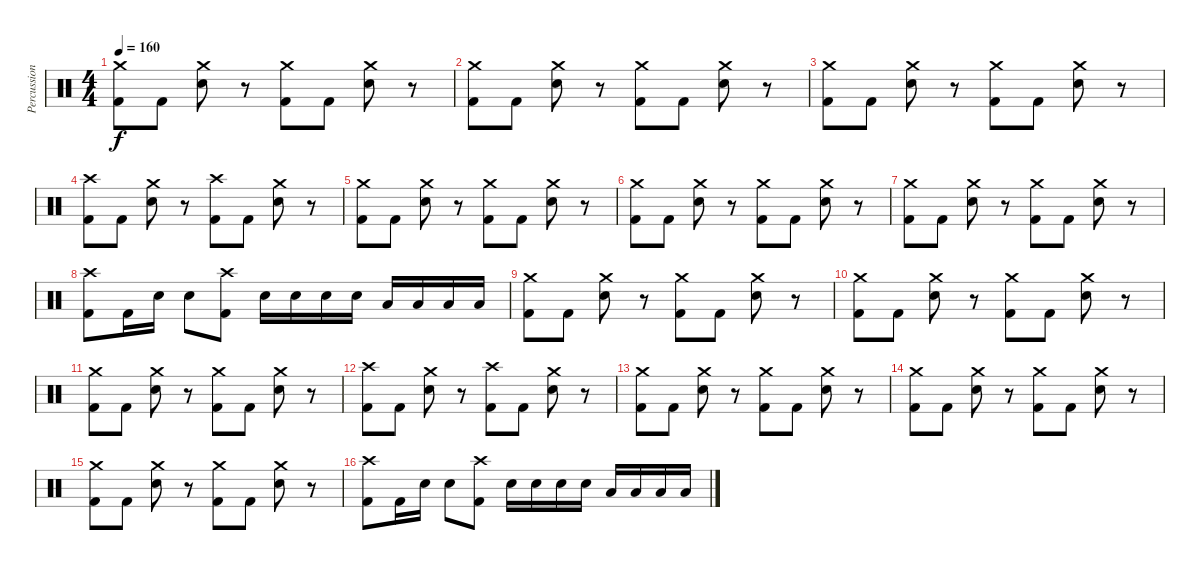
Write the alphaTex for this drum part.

\track ("Percussion" "Percussion") {instrument percussion}
\staff {score}
\articulation defaults
\ts (4 4)
\tempo 160
\clef neutral
\ks c
("Crash medium (hit)" "Kick (hit) 2").8{dy f} "Kick (hit) 2".8 ("Crash medium (hit)" "Electric Snare (hit)").8 r.8 ("Crash medium (hit)" "Kick (hit) 2").8 "Kick (hit) 2".8 ("Crash medium (hit)" "Electric Snare (hit)").8 r.8 |
("Crash medium (hit)" "Kick (hit) 2").8 "Kick (hit) 2".8 ("Crash medium (hit)" "Electric Snare (hit)").8 r.8 ("Crash medium (hit)" "Kick (hit) 2").8 "Kick (hit) 2".8 ("Crash medium (hit)" "Electric Snare (hit)").8 r.8 |
("Crash medium (hit)" "Kick (hit) 2").8 "Kick (hit) 2".8 ("Crash medium (hit)" "Electric Snare (hit)").8 r.8 ("Crash medium (hit)" "Kick (hit) 2").8 "Kick (hit) 2".8 ("Crash medium (hit)" "Electric Snare (hit)").8 r.8 |
("Crash high (hit)" "Kick (hit) 2").8 "Kick (hit) 2".8 ("Crash medium (hit)" "Electric Snare (hit)").8 r.8 ("Crash high (hit)" "Kick (hit) 2").8 "Kick (hit) 2".8 ("Crash medium (hit)" "Electric Snare (hit)").8 r.8 |
("Crash medium (hit)" "Kick (hit) 2").8 "Kick (hit) 2".8 ("Crash medium (hit)" "Electric Snare (hit)").8 r.8 ("Crash medium (hit)" "Kick (hit) 2").8 "Kick (hit) 2".8 ("Crash medium (hit)" "Electric Snare (hit)").8 r.8 |
("Crash medium (hit)" "Kick (hit) 2").8 "Kick (hit) 2".8 ("Crash medium (hit)" "Electric Snare (hit)").8 r.8 ("Crash medium (hit)" "Kick (hit) 2").8 "Kick (hit) 2".8 ("Crash medium (hit)" "Electric Snare (hit)").8 r.8 |
("Crash medium (hit)" "Kick (hit) 2").8 "Kick (hit) 2".8 ("Crash medium (hit)" "Electric Snare (hit)").8 r.8 ("Crash medium (hit)" "Kick (hit) 2").8 "Kick (hit) 2".8 ("Crash medium (hit)" "Electric Snare (hit)").8 r.8 |
("Crash high (hit)" "Kick (hit) 2").8 "Kick (hit) 2".16 "Electric Snare (hit)".16 "Electric Snare (hit)".8 ("Crash high (hit)" "Kick (hit) 2").8 "Electric Snare (hit)".16 "Electric Snare (hit)".16 "Electric Snare (hit)".16 "Electric Snare (hit)".16 "Low Tom (hit)".16 "Low Tom (hit)".16 "Low Tom (hit)".16 "Low Tom (hit)".16 |
("Crash medium (hit)" "Kick (hit) 2").8 "Kick (hit) 2".8 ("Crash medium (hit)" "Electric Snare (hit)").8 r.8 ("Crash medium (hit)" "Kick (hit) 2").8 "Kick (hit) 2".8 ("Crash medium (hit)" "Electric Snare (hit)").8 r.8 |
("Crash medium (hit)" "Kick (hit) 2").8 "Kick (hit) 2".8 ("Crash medium (hit)" "Electric Snare (hit)").8 r.8 ("Crash medium (hit)" "Kick (hit) 2").8 "Kick (hit) 2".8 ("Crash medium (hit)" "Electric Snare (hit)").8 r.8 |
("Crash medium (hit)" "Kick (hit) 2").8 "Kick (hit) 2".8 ("Crash medium (hit)" "Electric Snare (hit)").8 r.8 ("Crash medium (hit)" "Kick (hit) 2").8 "Kick (hit) 2".8 ("Crash medium (hit)" "Electric Snare (hit)").8 r.8 |
("Crash high (hit)" "Kick (hit) 2").8 "Kick (hit) 2".8 ("Crash medium (hit)" "Electric Snare (hit)").8 r.8 ("Crash high (hit)" "Kick (hit) 2").8 "Kick (hit) 2".8 ("Crash medium (hit)" "Electric Snare (hit)").8 r.8 |
("Crash medium (hit)" "Kick (hit) 2").8 "Kick (hit) 2".8 ("Crash medium (hit)" "Electric Snare (hit)").8 r.8 ("Crash medium (hit)" "Kick (hit) 2").8 "Kick (hit) 2".8 ("Crash medium (hit)" "Electric Snare (hit)").8 r.8 |
("Crash medium (hit)" "Kick (hit) 2").8 "Kick (hit) 2".8 ("Crash medium (hit)" "Electric Snare (hit)").8 r.8 ("Crash medium (hit)" "Kick (hit) 2").8 "Kick (hit) 2".8 ("Crash medium (hit)" "Electric Snare (hit)").8 r.8 |
("Crash medium (hit)" "Kick (hit) 2").8 "Kick (hit) 2".8 ("Crash medium (hit)" "Electric Snare (hit)").8 r.8 ("Crash medium (hit)" "Kick (hit) 2").8 "Kick (hit) 2".8 ("Crash medium (hit)" "Electric Snare (hit)").8 r.8 |
("Crash high (hit)" "Kick (hit) 2").8 "Kick (hit) 2".16 "Electric Snare (hit)".16 "Electric Snare (hit)".8 ("Crash high (hit)" "Kick (hit) 2").8 "Electric Snare (hit)".16 "Electric Snare (hit)".16 "Electric Snare (hit)".16 "Electric Snare (hit)".16 "Low Tom (hit)".16 "Low Tom (hit)".16 "Low Tom (hit)".16 "Low Tom (hit)".16
